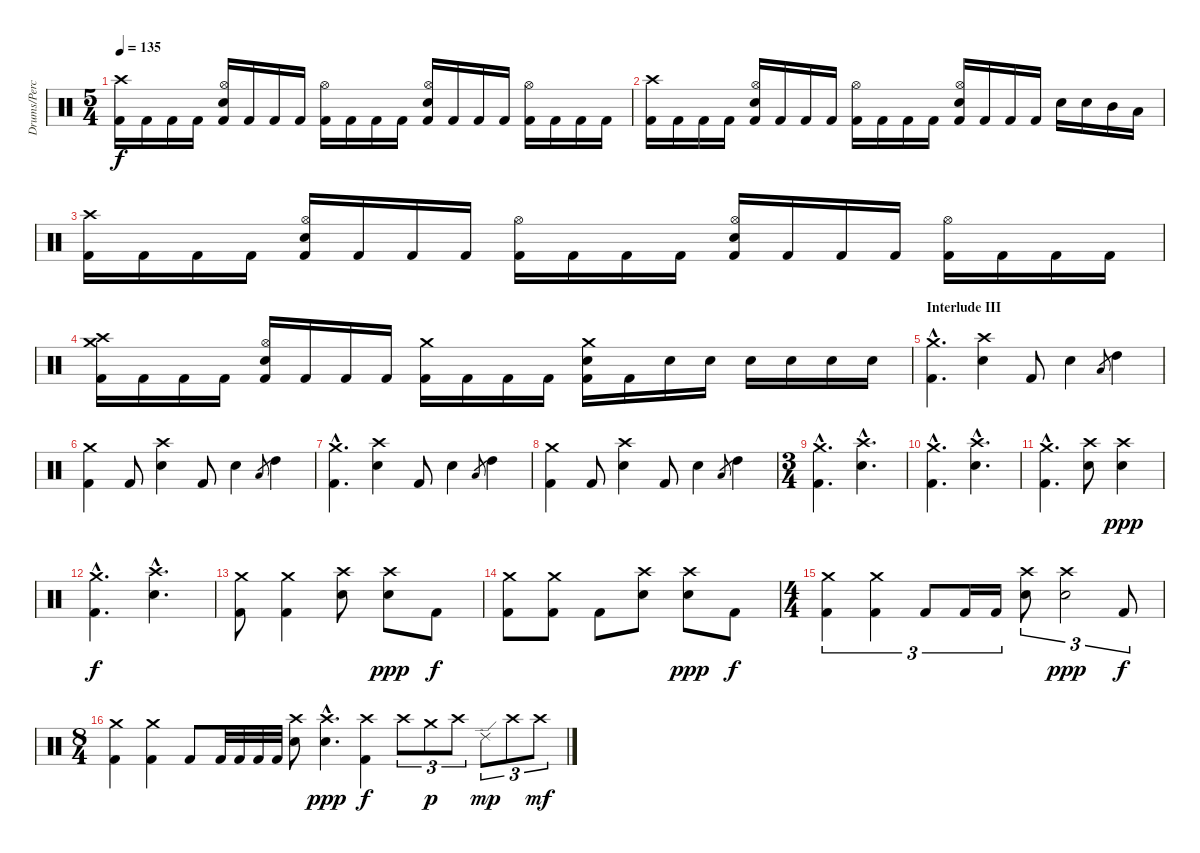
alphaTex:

\track ("Drums/Percussion" "Drums/Perc") {instrument percussion}
\staff {score}
\articulation defaults
\ts (5 4)
\tempo 135
\clef neutral
\ks c
("Crash high (hit)" "Kick (hit) 2").16{dy f} "Kick (hit) 2".16 "Kick (hit) 2".16 "Kick (hit) 2".16 ("Hi-Hat (open)" "Snare (hit) 2" "Kick (hit) 2").16 "Kick (hit) 2".16 "Kick (hit) 2".16 "Kick (hit) 2".16 ("Hi-Hat (open)" "Kick (hit) 2").16 "Kick (hit) 2".16 "Kick (hit) 2".16 "Kick (hit) 2".16 ("Hi-Hat (open)" "Snare (hit) 2" "Kick (hit) 2").16 "Kick (hit) 2".16 "Kick (hit) 2".16 "Kick (hit) 2".16 ("Hi-Hat (open)" "Kick (hit) 2").16 "Kick (hit) 2".16 "Kick (hit) 2".16 "Kick (hit) 2".16 |
("Crash high (hit)" "Kick (hit) 2").16 "Kick (hit) 2".16 "Kick (hit) 2".16 "Kick (hit) 2".16 ("Hi-Hat (open)" "Snare (hit) 2" "Kick (hit) 2").16 "Kick (hit) 2".16 "Kick (hit) 2".16 "Kick (hit) 2".16 ("Hi-Hat (open)" "Kick (hit) 2").16 "Kick (hit) 2".16 "Kick (hit) 2".16 "Kick (hit) 2".16 ("Hi-Hat (open)" "Snare (hit) 2" "Kick (hit) 2").16 "Kick (hit) 2".16 "Kick (hit) 2".16 "Kick (hit) 2".16 "Snare (hit) 2".16 "Snare (hit) 2".16 "Mid Tom (hit)".16 "Low Tom (hit)".16 |
("Crash high (hit)" "Kick (hit) 2").16 "Kick (hit) 2".16 "Kick (hit) 2".16 "Kick (hit) 2".16 ("Hi-Hat (open)" "Snare (hit) 2" "Kick (hit) 2").16 "Kick (hit) 2".16 "Kick (hit) 2".16 "Kick (hit) 2".16 ("Hi-Hat (open)" "Kick (hit) 2").16 "Kick (hit) 2".16 "Kick (hit) 2".16 "Kick (hit) 2".16 ("Hi-Hat (open)" "Snare (hit) 2" "Kick (hit) 2").16 "Kick (hit) 2".16 "Kick (hit) 2".16 "Kick (hit) 2".16 ("Hi-Hat (open)" "Kick (hit) 2").16 "Kick (hit) 2".16 "Kick (hit) 2".16 "Kick (hit) 2".16 |
("Crash medium (hit)" "Crash high (hit)" "Kick (hit) 2").16 "Kick (hit) 2".16 "Kick (hit) 2".16 "Kick (hit) 2".16 ("Hi-Hat (open)" "Snare (hit) 2" "Kick (hit) 2").16 "Kick (hit) 2".16 "Kick (hit) 2".16 "Kick (hit) 2".16 ("Crash medium (hit)" "Kick (hit) 2").16 "Kick (hit) 2".16 "Kick (hit) 2".16 "Kick (hit) 2".16 ("Crash medium (hit)" "Snare (hit) 2" "Kick (hit) 2").16 "Kick (hit) 2".16 "Snare (hit) 2".16 "Snare (hit) 2".16 "Snare (hit) 2".16 "Snare (hit) 2".16 "Snare (hit) 2".16 "Snare (hit) 2".16 |
\section ("" "Interlude III")
("Crash medium (hit)"{hac} "Kick (hit) 2"{hac}).4{d} ("Crash high (hit)" "Snare (hit) 2").4 "Kick (hit) 2".8 "Snare (hit) 2".4 "Low Floor Tom (hit)".8{gr} "High Tom (hit)".4 |
("Crash medium (hit)" "Kick (hit) 2").4 "Kick (hit) 2".8 ("Crash high (hit)" "Snare (hit) 2").4 "Kick (hit) 2".8 "Snare (hit) 2".4 "Low Floor Tom (hit)".8{gr} "High Tom (hit)".4 |
("Crash medium (hit)"{hac} "Kick (hit) 2"{hac}).4{d} ("Crash high (hit)" "Snare (hit) 2").4 "Kick (hit) 2".8 "Snare (hit) 2".4 "Low Floor Tom (hit)".8{gr} "High Tom (hit)".4 |
("Crash medium (hit)" "Kick (hit) 2").4 "Kick (hit) 2".8 ("Crash high (hit)" "Snare (hit) 2").4 "Kick (hit) 2".8 "Snare (hit) 2".4 "Low Floor Tom (hit)".8{gr} "High Tom (hit)".4 |
\ts (3 4)
("Crash medium (hit)"{hac} "Kick (hit) 2"{hac}).4{d} ("Crash high (hit)"{hac} "Snare (hit) 2"{hac}).4{d} |
("Crash medium (hit)"{hac} "Kick (hit) 2"{hac}).4{d} ("Crash high (hit)"{hac} "Snare (hit) 2"{hac}).4{d} |
("Crash medium (hit)"{hac} "Kick (hit) 2"{hac}).4{d} ("Crash high (hit)" "Snare (hit) 2").8 ("Crash high (hit)" "Snare (hit)"{x}).4{dy ppp} |
("Crash medium (hit)"{hac} "Kick (hit) 2"{hac}).4{d dy f} ("Crash high (hit)"{hac} "Snare (hit) 2"{hac}).4{d} |
("Crash medium (hit)" "Kick (hit) 2").8 ("Crash medium (hit)" "Kick (hit) 2").4 ("Crash high (hit)" "Snare (hit) 2").8 ("Crash high (hit)" "Snare (hit)"{x}).8{dy ppp} "Kick (hit) 2".8{dy f} |
("Crash medium (hit)" "Kick (hit) 2").8 ("Crash medium (hit)" "Kick (hit) 2").8 "Kick (hit) 2".8 ("Crash high (hit)" "Snare (hit) 2").8 ("Crash high (hit)" "Snare (hit)"{x}).8{dy ppp} "Kick (hit) 2".8{dy f} |
\ts (4 4)
("Crash medium (hit)" "Kick (hit) 2").4{tu (3 2)} ("Crash medium (hit)" "Kick (hit) 2").4{tu (3 2)} "Kick (hit) 2".8{tu (3 2)} "Kick (hit) 2".16{tu (3 2)} "Kick (hit) 2".16{tu (3 2)} ("Crash high (hit)" "Snare (hit) 2").8{tu (3 2)} ("Crash high (hit)" "Snare (hit)"{x}).2{tu (3 2) dy ppp} "Kick (hit) 2".8{tu (3 2) dy f} |
\ts (8 4)
("Crash medium (hit)" "Kick (hit) 2").4 ("Crash medium (hit)" "Kick (hit) 2").4 "Kick (hit) 2".8 "Kick (hit) 2".32 "Kick (hit) 2".32 "Kick (hit) 2".32 "Kick (hit) 2".32 ("Crash high (hit)" "Snare (hit) 2").8 ("Crash high (hit)"{hac} "Snare (hit)"{hac x}).4{d dy ppp} ("Crash high (hit)" "Kick (hit) 2").4{dy f} "Crash high (hit)".8{tu (3 2)} "Crash medium (hit)".8{tu (3 2) dy p} "Crash high (hit)".8{tu (3 2)} "Ride (edge) 2".8{tu (3 2) dy mp} "Crash high (hit)".8{tu (3 2)} "Crash high (hit)".8{tu (3 2) dy mf}
